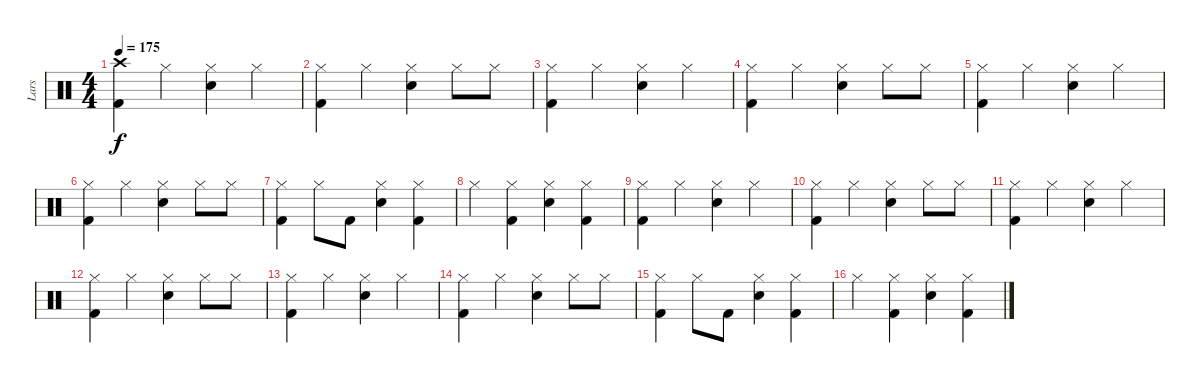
\track ("Lars" "Lars") {instrument percussion}
\staff {score}
\articulation defaults
\ts (4 4)
\tempo 175
\clef neutral
\ks c
("Crash high (hit)" "Kick (hit) 2").4{dy f} "Hi-Hat (closed)".4 ("Hi-Hat (closed)" "Electric Snare (hit)").4 "Hi-Hat (closed)".4 |
("Hi-Hat (closed)" "Kick (hit) 2").4 "Hi-Hat (closed)".4 ("Hi-Hat (closed)" "Electric Snare (hit)").4 "Hi-Hat (closed)".8 "Hi-Hat (closed)".8 |
("Hi-Hat (closed)" "Kick (hit) 2").4 "Hi-Hat (closed)".4 ("Hi-Hat (closed)" "Electric Snare (hit)").4 "Hi-Hat (closed)".4 |
("Hi-Hat (closed)" "Kick (hit) 2").4 "Hi-Hat (closed)".4 ("Hi-Hat (closed)" "Electric Snare (hit)").4 "Hi-Hat (closed)".8 "Hi-Hat (closed)".8 |
("Hi-Hat (closed)" "Kick (hit) 2").4 "Hi-Hat (closed)".4 ("Hi-Hat (closed)" "Electric Snare (hit)").4 "Hi-Hat (closed)".4 |
("Hi-Hat (closed)" "Kick (hit) 2").4 "Hi-Hat (closed)".4 ("Hi-Hat (closed)" "Electric Snare (hit)").4 "Hi-Hat (closed)".8 "Hi-Hat (closed)".8 |
("Hi-Hat (closed)" "Kick (hit) 2").4 "Hi-Hat (closed)".8 "Kick (hit) 2".8 ("Hi-Hat (closed)" "Electric Snare (hit)").4 ("Hi-Hat (closed)" "Kick (hit) 2").4 |
"Hi-Hat (closed)".4 ("Hi-Hat (closed)" "Kick (hit) 2").4 ("Hi-Hat (closed)" "Electric Snare (hit)").4 ("Hi-Hat (closed)" "Kick (hit) 2").4 |
("Hi-Hat (closed)" "Kick (hit) 2").4 "Hi-Hat (closed)".4 ("Hi-Hat (closed)" "Electric Snare (hit)").4 "Hi-Hat (closed)".4 |
("Hi-Hat (closed)" "Kick (hit) 2").4 "Hi-Hat (closed)".4 ("Hi-Hat (closed)" "Electric Snare (hit)").4 "Hi-Hat (closed)".8 "Hi-Hat (closed)".8 |
("Hi-Hat (closed)" "Kick (hit) 2").4 "Hi-Hat (closed)".4 ("Hi-Hat (closed)" "Electric Snare (hit)").4 "Hi-Hat (closed)".4 |
("Hi-Hat (closed)" "Kick (hit) 2").4 "Hi-Hat (closed)".4 ("Hi-Hat (closed)" "Electric Snare (hit)").4 "Hi-Hat (closed)".8 "Hi-Hat (closed)".8 |
("Hi-Hat (closed)" "Kick (hit) 2").4 "Hi-Hat (closed)".4 ("Hi-Hat (closed)" "Electric Snare (hit)").4 "Hi-Hat (closed)".4 |
("Hi-Hat (closed)" "Kick (hit) 2").4 "Hi-Hat (closed)".4 ("Hi-Hat (closed)" "Electric Snare (hit)").4 "Hi-Hat (closed)".8 "Hi-Hat (closed)".8 |
("Hi-Hat (closed)" "Kick (hit) 2").4 "Hi-Hat (closed)".8 "Kick (hit) 2".8 ("Hi-Hat (closed)" "Electric Snare (hit)").4 ("Hi-Hat (closed)" "Kick (hit) 2").4 |
"Hi-Hat (closed)".4 ("Hi-Hat (closed)" "Kick (hit) 2").4 ("Hi-Hat (closed)" "Electric Snare (hit)").4 ("Hi-Hat (closed)" "Kick (hit) 2").4
